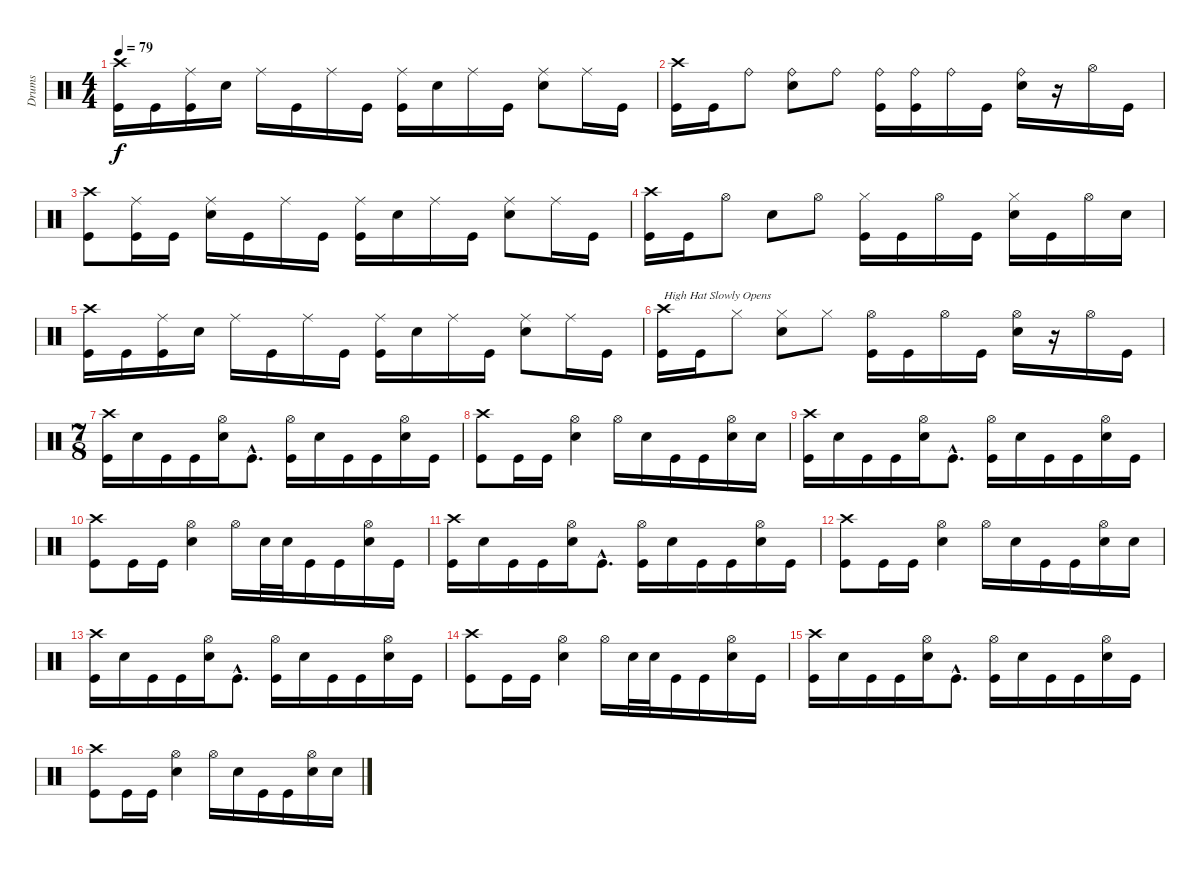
\track ("Drums" "Drums") {instrument percussion}
\staff {score}
\articulation defaults
\ts (4 4)
\tempo 79
\clef neutral
\ks c
("Crash high (hit)" "Kick (hit)").16{dy f} "Kick (hit)".16 ("Ride (middle)" "Kick (hit)").16 "Electric Snare (hit)".16 "Ride (middle)".16 "Kick (hit)".16 "Ride (middle)".16 "Kick (hit)".16 ("Ride (middle)" "Kick (hit)").16 "Electric Snare (hit)".16 "Ride (middle)".16 "Kick (hit)".16 ("Ride (middle)" "Electric Snare (hit)").8 "Ride (middle)".16 "Kick (hit)".16 |
("Crash high (hit)" "Kick (hit)").16 "Kick (hit)".16 "Ride (bell)".8 ("Ride (bell)" "Electric Snare (hit)").8 "Ride (bell)".8 ("Ride (bell)" "Kick (hit)").16 ("Ride (bell)" "Kick (hit)").16 "Ride (bell)".16 "Kick (hit)".16 ("Ride (bell)" "Electric Snare (hit)").16 r.16 "Hi-Hat (open)".16 "Kick (hit)".16 |
("Crash high (hit)" "Kick (hit)").8 ("Ride (middle)" "Kick (hit)").16 "Kick (hit)".16 ("Ride (middle)" "Electric Snare (hit)").16 "Kick (hit)".16 "Ride (middle)".16 "Kick (hit)".16 ("Ride (middle)" "Kick (hit)").16 "Electric Snare (hit)".16 "Ride (middle)".16 "Kick (hit)".16 ("Ride (middle)" "Electric Snare (hit)").8 "Ride (middle)".16 "Kick (hit)".16 |
("Crash high (hit)" "Kick (hit)").16 "Kick (hit)".16 "Hi-Hat (open)".8 "Electric Snare (hit)".8 "Hi-Hat (open)".8 ("Hi-Hat (closed)" "Kick (hit)").16 "Kick (hit)".16 "Hi-Hat (open)".16 "Kick (hit)".16 ("Hi-Hat (closed)" "Electric Snare (hit)").16 "Kick (hit)".16 "Hi-Hat (open)".16 "Electric Snare (hit)".16 |
("Crash high (hit)" "Kick (hit)").16 "Kick (hit)".16 ("Ride (middle)" "Kick (hit)").16 "Electric Snare (hit)".16 "Ride (middle)".16 "Kick (hit)".16 "Ride (middle)".16 "Kick (hit)".16 ("Ride (middle)" "Kick (hit)").16 "Electric Snare (hit)".16 "Ride (middle)".16 "Kick (hit)".16 ("Ride (middle)" "Electric Snare (hit)").8 "Ride (middle)".16 "Kick (hit)".16 |
("Crash high (hit)" "Kick (hit)").16{txt "High Hat Slowly Opens"} "Kick (hit)".16 "Hi-Hat (closed)".8 ("Hi-Hat (closed)" "Electric Snare (hit)").8 "Hi-Hat (closed)".8 ("Hi-Hat (open)" "Kick (hit)").16 "Kick (hit)".16 "Hi-Hat (open)".16 "Kick (hit)".16 ("Hi-Hat (open)" "Electric Snare (hit)").16 r.16 "Hi-Hat (open)".16 "Kick (hit)".16 |
\ts (7 8)
("Crash high (hit)" "Kick (hit)").16 "Electric Snare (hit)".16 "Kick (hit)".16 "Kick (hit)".16 ("Hi-Hat (open)" "Electric Snare (hit)").16 "Kick (hit)"{hac}.8{d} ("Hi-Hat (open)" "Kick (hit)").16 "Electric Snare (hit)".16 "Kick (hit)".16 "Kick (hit)".16 ("Hi-Hat (open)" "Electric Snare (hit)").16 "Kick (hit)".16 |
("Crash high (hit)" "Kick (hit)").8 "Kick (hit)".16 "Kick (hit)".16 ("Hi-Hat (open)" "Electric Snare (hit)").4 "Hi-Hat (open)".16 "Electric Snare (hit)".16 "Kick (hit)".16 "Kick (hit)".16 ("Hi-Hat (open)" "Electric Snare (hit)").16 "Electric Snare (hit)".16 |
("Crash high (hit)" "Kick (hit)").16 "Electric Snare (hit)".16 "Kick (hit)".16 "Kick (hit)".16 ("Hi-Hat (open)" "Electric Snare (hit)").16 "Kick (hit)"{hac}.8{d} ("Hi-Hat (open)" "Kick (hit)").16 "Electric Snare (hit)".16 "Kick (hit)".16 "Kick (hit)".16 ("Hi-Hat (open)" "Electric Snare (hit)").16 "Kick (hit)".16 |
("Crash high (hit)" "Kick (hit)").8 "Kick (hit)".16 "Kick (hit)".16 ("Hi-Hat (open)" "Electric Snare (hit)").4 "Hi-Hat (open)".16 "Electric Snare (hit)".32 "Electric Snare (hit)".32 "Kick (hit)".16 "Kick (hit)".16 ("Hi-Hat (open)" "Electric Snare (hit)").16 "Kick (hit)".16 |
("Crash high (hit)" "Kick (hit)").16 "Electric Snare (hit)".16 "Kick (hit)".16 "Kick (hit)".16 ("Hi-Hat (open)" "Electric Snare (hit)").16 "Kick (hit)"{hac}.8{d} ("Hi-Hat (open)" "Kick (hit)").16 "Electric Snare (hit)".16 "Kick (hit)".16 "Kick (hit)".16 ("Hi-Hat (open)" "Electric Snare (hit)").16 "Kick (hit)".16 |
("Crash high (hit)" "Kick (hit)").8 "Kick (hit)".16 "Kick (hit)".16 ("Hi-Hat (open)" "Electric Snare (hit)").4 "Hi-Hat (open)".16 "Electric Snare (hit)".16 "Kick (hit)".16 "Kick (hit)".16 ("Hi-Hat (open)" "Electric Snare (hit)").16 "Electric Snare (hit)".16 |
("Crash high (hit)" "Kick (hit)").16 "Electric Snare (hit)".16 "Kick (hit)".16 "Kick (hit)".16 ("Hi-Hat (open)" "Electric Snare (hit)").16 "Kick (hit)"{hac}.8{d} ("Hi-Hat (open)" "Kick (hit)").16 "Electric Snare (hit)".16 "Kick (hit)".16 "Kick (hit)".16 ("Hi-Hat (open)" "Electric Snare (hit)").16 "Kick (hit)".16 |
("Crash high (hit)" "Kick (hit)").8 "Kick (hit)".16 "Kick (hit)".16 ("Hi-Hat (open)" "Electric Snare (hit)").4 "Hi-Hat (open)".16 "Electric Snare (hit)".32 "Electric Snare (hit)".32 "Kick (hit)".16 "Kick (hit)".16 ("Hi-Hat (open)" "Electric Snare (hit)").16 "Kick (hit)".16 |
("Crash high (hit)" "Kick (hit)").16 "Electric Snare (hit)".16 "Kick (hit)".16 "Kick (hit)".16 ("Hi-Hat (open)" "Electric Snare (hit)").16 "Kick (hit)"{hac}.8{d} ("Hi-Hat (open)" "Kick (hit)").16 "Electric Snare (hit)".16 "Kick (hit)".16 "Kick (hit)".16 ("Hi-Hat (open)" "Electric Snare (hit)").16 "Kick (hit)".16 |
("Crash high (hit)" "Kick (hit)").8 "Kick (hit)".16 "Kick (hit)".16 ("Hi-Hat (open)" "Electric Snare (hit)").4 "Hi-Hat (open)".16 "Electric Snare (hit)".16 "Kick (hit)".16 "Kick (hit)".16 ("Hi-Hat (open)" "Electric Snare (hit)").16 "Electric Snare (hit)".16
